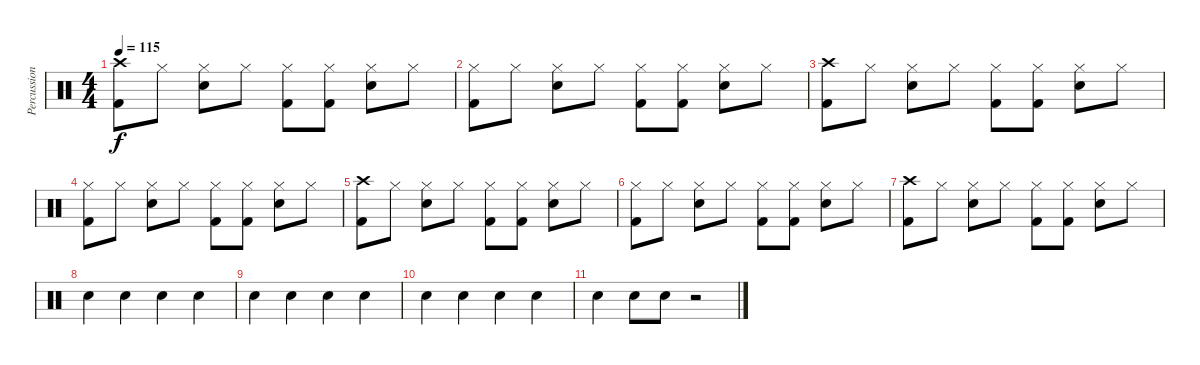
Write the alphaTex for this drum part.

\track ("Percussions" "Percussion") {instrument percussion}
\staff {score}
\articulation defaults
\ts (4 4)
\tempo 115
\clef neutral
\ks c
("Crash high (hit)" "Kick (hit) 2").8{dy f} "Hi-Hat (closed)".8 ("Hi-Hat (closed)" "Snare (hit) 2").8 "Hi-Hat (closed)".8 ("Hi-Hat (closed)" "Kick (hit) 2").8 ("Hi-Hat (closed)" "Kick (hit) 2").8 ("Hi-Hat (closed)" "Snare (hit) 2").8 "Hi-Hat (closed)".8 |
("Hi-Hat (closed)" "Kick (hit) 2").8 "Hi-Hat (closed)".8 ("Hi-Hat (closed)" "Snare (hit) 2").8 "Hi-Hat (closed)".8 ("Hi-Hat (closed)" "Kick (hit) 2").8 ("Hi-Hat (closed)" "Kick (hit) 2").8 ("Hi-Hat (closed)" "Snare (hit) 2").8 "Hi-Hat (closed)".8 |
("Crash high (hit)" "Kick (hit) 2").8 "Hi-Hat (closed)".8 ("Hi-Hat (closed)" "Snare (hit) 2").8 "Hi-Hat (closed)".8 ("Hi-Hat (closed)" "Kick (hit) 2").8 ("Hi-Hat (closed)" "Kick (hit) 2").8 ("Hi-Hat (closed)" "Snare (hit) 2").8 "Hi-Hat (closed)".8 |
("Hi-Hat (closed)" "Kick (hit) 2").8 "Hi-Hat (closed)".8 ("Hi-Hat (closed)" "Snare (hit) 2").8 "Hi-Hat (closed)".8 ("Hi-Hat (closed)" "Kick (hit) 2").8 ("Hi-Hat (closed)" "Kick (hit) 2").8 ("Hi-Hat (closed)" "Snare (hit) 2").8 "Hi-Hat (closed)".8 |
("Crash high (hit)" "Kick (hit) 2").8 "Hi-Hat (closed)".8 ("Hi-Hat (closed)" "Snare (hit) 2").8 "Hi-Hat (closed)".8 ("Hi-Hat (closed)" "Kick (hit) 2").8 ("Hi-Hat (closed)" "Kick (hit) 2").8 ("Hi-Hat (closed)" "Snare (hit) 2").8 "Hi-Hat (closed)".8 |
("Hi-Hat (closed)" "Kick (hit) 2").8 "Hi-Hat (closed)".8 ("Hi-Hat (closed)" "Snare (hit) 2").8 "Hi-Hat (closed)".8 ("Hi-Hat (closed)" "Kick (hit) 2").8 ("Hi-Hat (closed)" "Kick (hit) 2").8 ("Hi-Hat (closed)" "Snare (hit) 2").8 "Hi-Hat (closed)".8 |
("Crash high (hit)" "Kick (hit) 2").8 "Hi-Hat (closed)".8 ("Hi-Hat (closed)" "Snare (hit) 2").8 "Hi-Hat (closed)".8 ("Hi-Hat (closed)" "Kick (hit) 2").8 ("Hi-Hat (closed)" "Kick (hit) 2").8 ("Hi-Hat (closed)" "Snare (hit) 2").8 "Hi-Hat (closed)".8 |
"Snare (hit) 2".4 "Snare (hit) 2".4 "Snare (hit) 2".4 "Snare (hit) 2".4 |
"Snare (hit) 2".4 "Snare (hit) 2".4 "Snare (hit) 2".4 "Snare (hit) 2".4 |
"Snare (hit) 2".4 "Snare (hit) 2".4 "Snare (hit) 2".4 "Snare (hit) 2".4 |
"Snare (hit) 2".4 "Snare (hit) 2".8 "Snare (hit) 2".8 r.2
